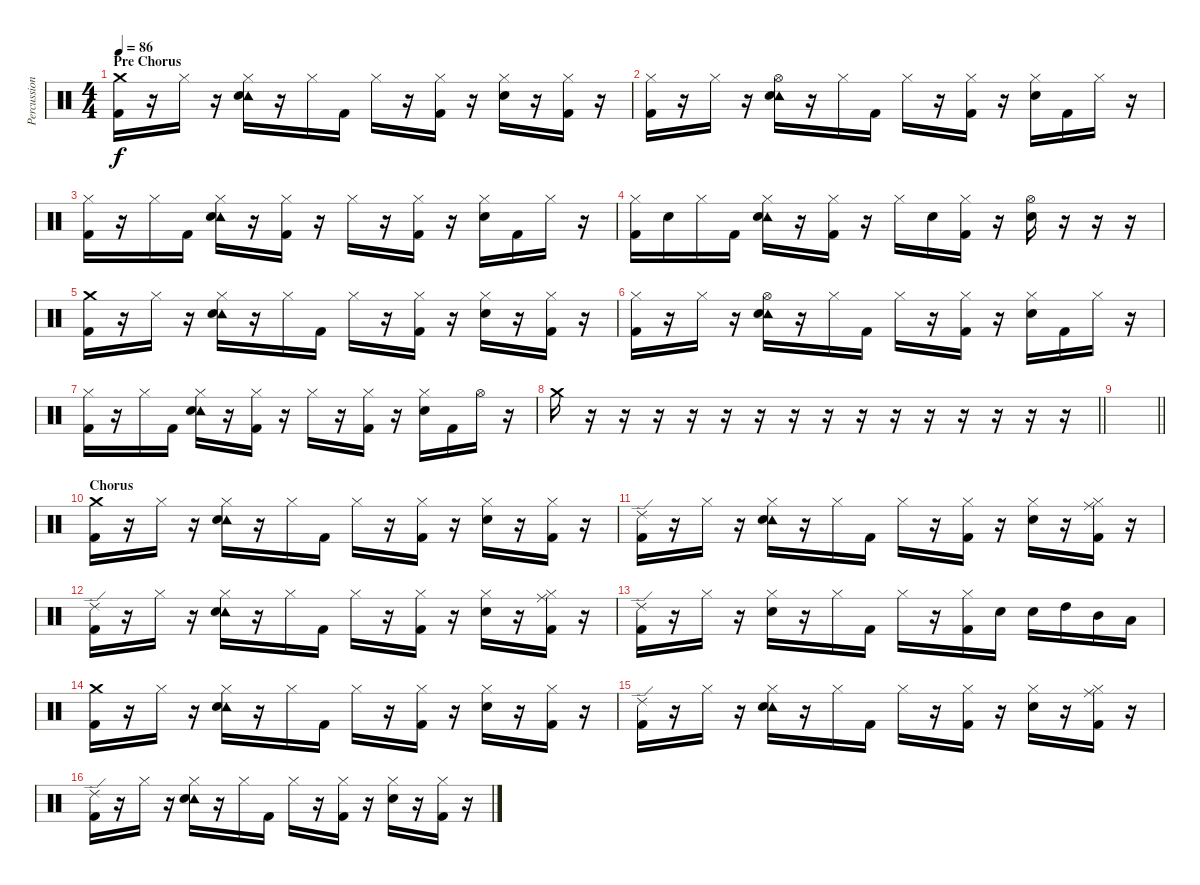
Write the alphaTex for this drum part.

\track ("Percussion" "Percussion") {instrument percussion}
\staff {score}
\articulation defaults
\ts (4 4)
\section ("" "Pre Chorus")
\tempo 86
\clef neutral
\ks c
("Crash medium (hit)" "Kick (hit) 2").16{dy f} r.16 "Hi-Hat (closed)".16 r.16 ("Hi-Hat (closed)" "Tambourine (hit)" "Snare (hit) 2").16 r.16 "Hi-Hat (closed)".16 "Kick (hit) 2".16 "Hi-Hat (closed)".16 r.16 ("Hi-Hat (closed)" "Kick (hit) 2").16 r.16 ("Hi-Hat (closed)" "Snare (hit) 2").16 r.16 ("Hi-Hat (closed)" "Kick (hit) 2").16 r.16 |
("Hi-Hat (closed)" "Kick (hit) 2").16 r.16 "Hi-Hat (closed)".16 r.16 ("Hi-Hat (open)" "Tambourine (hit)" "Snare (hit) 2").16 r.16 "Hi-Hat (closed)".16 "Kick (hit) 2".16 "Hi-Hat (closed)".16 r.16 ("Hi-Hat (closed)" "Kick (hit) 2").16 r.16 ("Hi-Hat (closed)" "Snare (hit) 2").16 "Kick (hit) 2".16 "Hi-Hat (closed)".16 r.16 |
("Hi-Hat (closed)" "Kick (hit) 2").16 r.16 "Hi-Hat (closed)".16 "Kick (hit) 2".16 ("Hi-Hat (closed)" "Tambourine (hit)" "Snare (hit) 2").16 r.16 ("Hi-Hat (closed)" "Kick (hit) 2").16 r.16 "Hi-Hat (closed)".16 r.16 ("Hi-Hat (closed)" "Kick (hit) 2").16 r.16 ("Hi-Hat (closed)" "Snare (hit) 2").16 "Kick (hit) 2".16 "Hi-Hat (closed)".16 r.16 |
("Hi-Hat (closed)" "Kick (hit) 2").16 "Snare (hit) 2".16 "Hi-Hat (closed)".16 "Kick (hit) 2".16 ("Hi-Hat (closed)" "Tambourine (hit)" "Snare (hit) 2").16 r.16 ("Hi-Hat (closed)" "Kick (hit) 2").16 r.16 "Hi-Hat (closed)".16 "Snare (hit) 2".16 ("Hi-Hat (closed)" "Kick (hit) 2").16 r.16 ("Hi-Hat (open)" "Snare (hit) 2").16 r.16 r.16 r.16 |
("Crash medium (hit)" "Kick (hit) 2").16 r.16 "Hi-Hat (closed)".16 r.16 ("Hi-Hat (closed)" "Tambourine (hit)" "Snare (hit) 2").16 r.16 "Hi-Hat (closed)".16 "Kick (hit) 2".16 "Hi-Hat (closed)".16 r.16 ("Hi-Hat (closed)" "Kick (hit) 2").16 r.16 ("Hi-Hat (closed)" "Snare (hit) 2").16 r.16 ("Hi-Hat (closed)" "Kick (hit) 2").16 r.16 |
("Hi-Hat (closed)" "Kick (hit) 2").16 r.16 "Hi-Hat (closed)".16 r.16 ("Hi-Hat (open)" "Tambourine (hit)" "Snare (hit) 2").16 r.16 "Hi-Hat (closed)".16 "Kick (hit) 2".16 "Hi-Hat (closed)".16 r.16 ("Hi-Hat (closed)" "Kick (hit) 2").16 r.16 ("Hi-Hat (closed)" "Snare (hit) 2").16 "Kick (hit) 2".16 "Hi-Hat (closed)".16 r.16 |
("Hi-Hat (closed)" "Kick (hit) 2").16 r.16 "Hi-Hat (closed)".16 "Kick (hit) 2".16 ("Hi-Hat (closed)" "Tambourine (hit)" "Snare (hit) 2").16 r.16 ("Hi-Hat (closed)" "Kick (hit) 2").16 r.16 "Hi-Hat (closed)".16 r.16 ("Hi-Hat (closed)" "Kick (hit) 2").16 r.16 ("Hi-Hat (closed)" "Snare (hit) 2").16 "Kick (hit) 2".16 "Hi-Hat (open)".16 r.16 |
\barLineRight lightlight "Crash medium (hit)".16
r.16 r.16 r.16 r.16 r.16 r.16 r.16 r.16 r.16 r.16 r.16 r.16 r.16 r.16 r.16 |
\barLineRight lightlight
|
\section ("" "Chorus")
("Crash medium (hit)" "Kick (hit) 2").16 r.16 "Hi-Hat (closed)".16 r.16 ("Hi-Hat (closed)" "Tambourine (hit)" "Snare (hit) 2").16 r.16 "Hi-Hat (closed)".16 "Kick (hit) 2".16 "Hi-Hat (closed)".16 r.16 ("Hi-Hat (closed)" "Kick (hit) 2").16 r.16 ("Hi-Hat (closed)" "Snare (hit) 2").16 r.16 ("Hi-Hat (closed)" "Kick (hit) 2").16 r.16 |
("Ride (edge) 2" "Kick (hit) 2").16 r.16 "Hi-Hat (closed)".16 r.16 ("Hi-Hat (closed)" "Tambourine (hit)" "Snare (hit) 2").16 r.16 "Hi-Hat (closed)".16 "Kick (hit) 2".16 "Hi-Hat (closed)".16 r.16 ("Hi-Hat (closed)" "Kick (hit) 2").16 r.16 ("Hi-Hat (closed)" "Snare (hit) 2").16 r.16 ("Ride (middle)" "Hi-Hat (closed)" "Kick (hit) 2").16 r.16 |
("Ride (edge) 2" "Kick (hit) 2").16 r.16 "Hi-Hat (closed)".16 r.16 ("Hi-Hat (closed)" "Tambourine (hit)" "Snare (hit) 2").16 r.16 "Hi-Hat (closed)".16 "Kick (hit) 2".16 "Hi-Hat (closed)".16 r.16 ("Hi-Hat (closed)" "Kick (hit) 2").16 r.16 ("Hi-Hat (closed)" "Snare (hit) 2").16 r.16 ("Ride (middle)" "Hi-Hat (closed)" "Kick (hit) 2").16 r.16 |
("Ride (edge) 2" "Kick (hit) 2").16 r.16 "Hi-Hat (closed)".16 r.16 ("Hi-Hat (closed)" "Snare (hit) 2").16 r.16 "Hi-Hat (closed)".16 "Kick (hit) 2".16 "Hi-Hat (closed)".16 r.16 ("Hi-Hat (closed)" "Kick (hit) 2").16 "Snare (hit) 2".16 "Snare (hit) 2".16 "High Tom (hit)".16 "Mid Tom (hit)".16 "Low Tom (hit)".16 |
("Crash medium (hit)" "Kick (hit) 2").16 r.16 "Hi-Hat (closed)".16 r.16 ("Hi-Hat (closed)" "Tambourine (hit)" "Snare (hit) 2").16 r.16 "Hi-Hat (closed)".16 "Kick (hit) 2".16 "Hi-Hat (closed)".16 r.16 ("Hi-Hat (closed)" "Kick (hit) 2").16 r.16 ("Hi-Hat (closed)" "Snare (hit) 2").16 r.16 ("Hi-Hat (closed)" "Kick (hit) 2").16 r.16 |
("Ride (edge) 2" "Kick (hit) 2").16 r.16 "Hi-Hat (closed)".16 r.16 ("Hi-Hat (closed)" "Tambourine (hit)" "Snare (hit) 2").16 r.16 "Hi-Hat (closed)".16 "Kick (hit) 2".16 "Hi-Hat (closed)".16 r.16 ("Hi-Hat (closed)" "Kick (hit) 2").16 r.16 ("Hi-Hat (closed)" "Snare (hit) 2").16 r.16 ("Ride (middle)" "Hi-Hat (closed)" "Kick (hit) 2").16 r.16 |
("Ride (edge) 2" "Kick (hit) 2").16 r.16 "Hi-Hat (closed)".16 r.16 ("Hi-Hat (closed)" "Tambourine (hit)" "Snare (hit) 2").16 r.16 "Hi-Hat (closed)".16 "Kick (hit) 2".16 "Hi-Hat (closed)".16 r.16 ("Hi-Hat (closed)" "Kick (hit) 2").16 r.16 ("Hi-Hat (closed)" "Snare (hit) 2").16 r.16 ("Hi-Hat (closed)" "Kick (hit) 2").16 r.16
